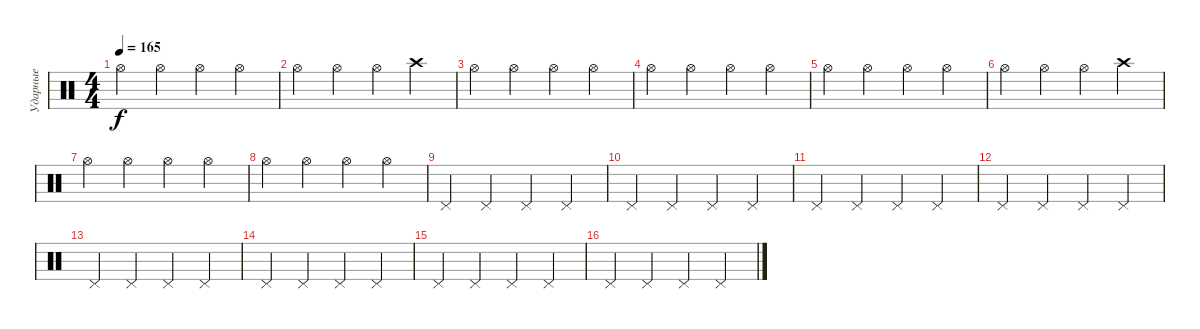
\track ("Ударные" "Ударные") {instrument percussion}
\staff {score}
\articulation defaults
\ts (4 4)
\tempo 165
\clef neutral
\ks c "Hi-Hat (open)".4{dy f} "Hi-Hat (open)".4 "Hi-Hat (open)".4 "Hi-Hat (open)".4
|
"Hi-Hat (open)".4 "Hi-Hat (open)".4 "Hi-Hat (open)".4 "Crash high (hit)".4 |
"Hi-Hat (open)".4 "Hi-Hat (open)".4 "Hi-Hat (open)".4 "Hi-Hat (open)".4 |
"Hi-Hat (open)".4 "Hi-Hat (open)".4 "Hi-Hat (open)".4 "Hi-Hat (open)".4 |
"Hi-Hat (open)".4 "Hi-Hat (open)".4 "Hi-Hat (open)".4 "Hi-Hat (open)".4 |
"Hi-Hat (open)".4 "Hi-Hat (open)".4 "Hi-Hat (open)".4 "Crash high (hit)".4 |
"Hi-Hat (open)".4 "Hi-Hat (open)".4 "Hi-Hat (open)".4 "Hi-Hat (open)".4 |
"Hi-Hat (open)".4 "Hi-Hat (open)".4 "Hi-Hat (open)".4 "Hi-Hat (open)".4 |
"Pedal Hi-Hat (hit)".4 "Pedal Hi-Hat (hit)".4 "Pedal Hi-Hat (hit)".4 "Pedal Hi-Hat (hit)".4 |
"Pedal Hi-Hat (hit)".4 "Pedal Hi-Hat (hit)".4 "Pedal Hi-Hat (hit)".4 "Pedal Hi-Hat (hit)".4 |
"Pedal Hi-Hat (hit)".4 "Pedal Hi-Hat (hit)".4 "Pedal Hi-Hat (hit)".4 "Pedal Hi-Hat (hit)".4 |
"Pedal Hi-Hat (hit)".4 "Pedal Hi-Hat (hit)".4 "Pedal Hi-Hat (hit)".4 "Pedal Hi-Hat (hit)".4 |
"Pedal Hi-Hat (hit)".4 "Pedal Hi-Hat (hit)".4 "Pedal Hi-Hat (hit)".4 "Pedal Hi-Hat (hit)".4 |
"Pedal Hi-Hat (hit)".4 "Pedal Hi-Hat (hit)".4 "Pedal Hi-Hat (hit)".4 "Pedal Hi-Hat (hit)".4 |
"Pedal Hi-Hat (hit)".4 "Pedal Hi-Hat (hit)".4 "Pedal Hi-Hat (hit)".4 "Pedal Hi-Hat (hit)".4 |
"Pedal Hi-Hat (hit)".4 "Pedal Hi-Hat (hit)".4 "Pedal Hi-Hat (hit)".4 "Pedal Hi-Hat (hit)".4
